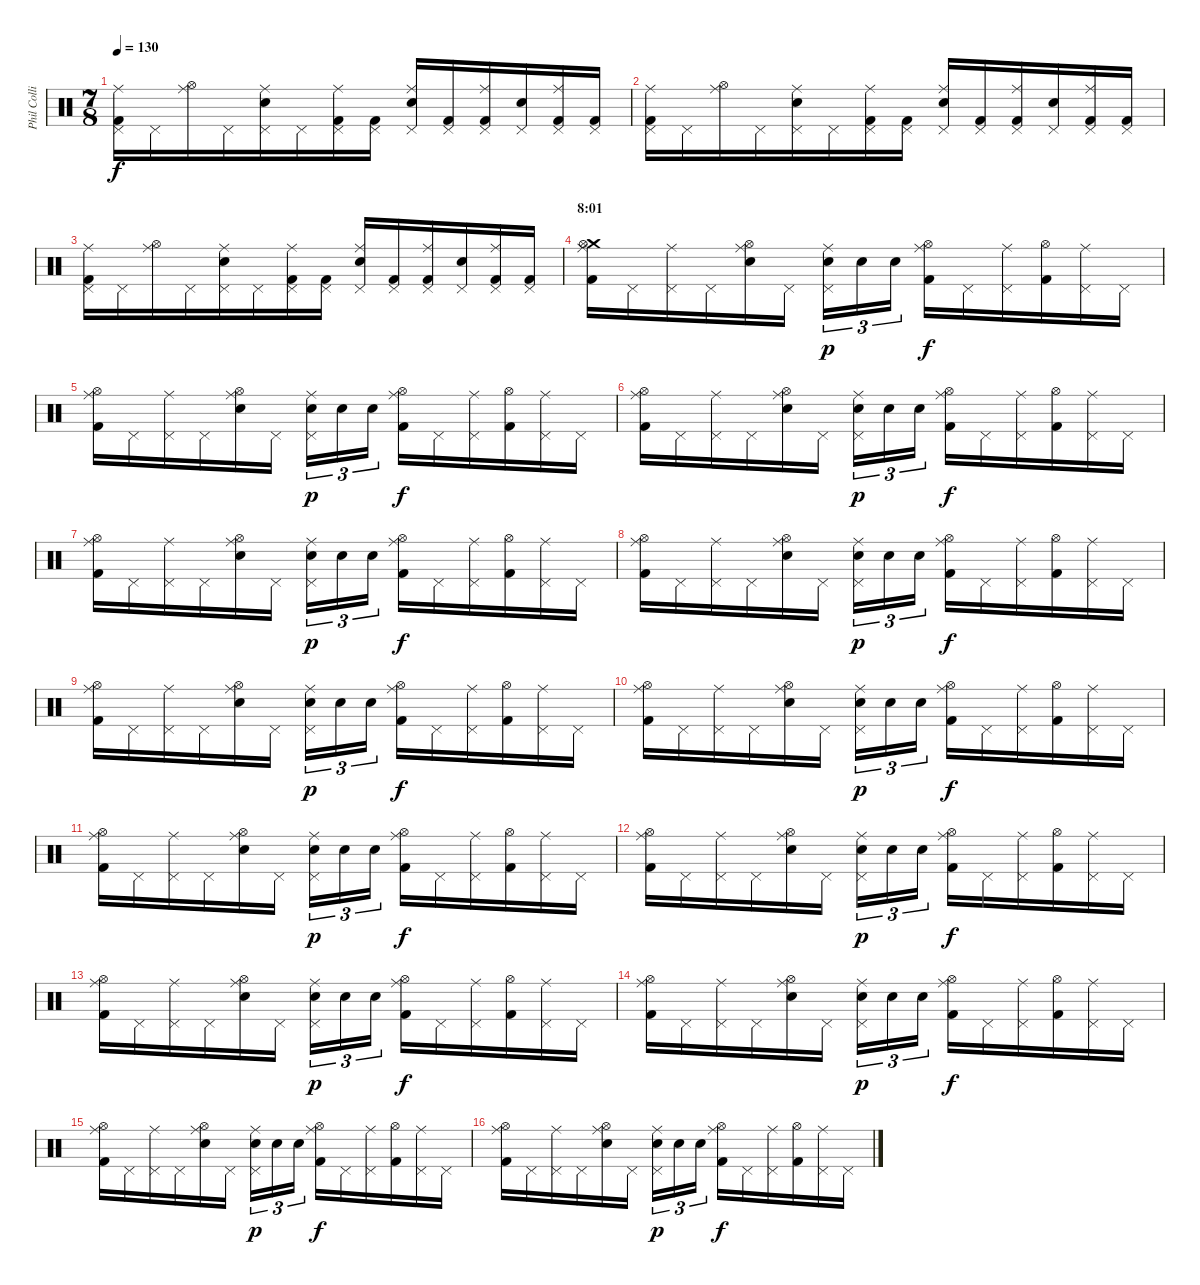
\track ("Phil Collins (drums)" "Phil Colli") {instrument percussion}
\staff {score}
\articulation defaults
\ts (7 8)
\tempo 130
\clef neutral
\ks c
("Ride (middle)" "Pedal Hi-Hat (hit)" "Kick (hit) 2").16{dy f} "Pedal Hi-Hat (hit)".16 ("Ride (middle)" "Hi-Hat (open)").16 "Pedal Hi-Hat (hit)".16 ("Ride (middle)" "Pedal Hi-Hat (hit)" "Electric Snare (hit)").16 "Pedal Hi-Hat (hit)".16 ("Ride (middle)" "Pedal Hi-Hat (hit)" "Kick (hit) 2").16 ("Pedal Hi-Hat (hit)" "Kick (hit) 2").16 ("Ride (middle)" "Pedal Hi-Hat (hit)" "Electric Snare (hit)").16 ("Pedal Hi-Hat (hit)" "Kick (hit) 2").16 ("Ride (middle)" "Pedal Hi-Hat (hit)" "Kick (hit) 2").16 ("Pedal Hi-Hat (hit)" "Electric Snare (hit)").16 ("Ride (middle)" "Pedal Hi-Hat (hit)" "Kick (hit) 2").16 ("Pedal Hi-Hat (hit)" "Kick (hit) 2").16 |
("Ride (middle)" "Pedal Hi-Hat (hit)" "Kick (hit) 2").16 "Pedal Hi-Hat (hit)".16 ("Ride (middle)" "Hi-Hat (open)").16 "Pedal Hi-Hat (hit)".16 ("Ride (middle)" "Pedal Hi-Hat (hit)" "Electric Snare (hit)").16 "Pedal Hi-Hat (hit)".16 ("Ride (middle)" "Pedal Hi-Hat (hit)" "Kick (hit) 2").16 ("Pedal Hi-Hat (hit)" "Kick (hit) 2").16 ("Ride (middle)" "Pedal Hi-Hat (hit)" "Electric Snare (hit)").16 ("Pedal Hi-Hat (hit)" "Kick (hit) 2").16 ("Ride (middle)" "Pedal Hi-Hat (hit)" "Kick (hit) 2").16 ("Pedal Hi-Hat (hit)" "Electric Snare (hit)").16 ("Ride (middle)" "Pedal Hi-Hat (hit)" "Kick (hit) 2").16 ("Pedal Hi-Hat (hit)" "Kick (hit) 2").16 |
("Ride (middle)" "Pedal Hi-Hat (hit)" "Kick (hit) 2").16 "Pedal Hi-Hat (hit)".16 ("Ride (middle)" "Hi-Hat (open)").16 "Pedal Hi-Hat (hit)".16 ("Ride (middle)" "Pedal Hi-Hat (hit)" "Electric Snare (hit)").16 "Pedal Hi-Hat (hit)".16 ("Ride (middle)" "Pedal Hi-Hat (hit)" "Kick (hit) 2").16 ("Pedal Hi-Hat (hit)" "Kick (hit) 2").16 ("Ride (middle)" "Pedal Hi-Hat (hit)" "Electric Snare (hit)").16 ("Pedal Hi-Hat (hit)" "Kick (hit) 2").16 ("Ride (middle)" "Pedal Hi-Hat (hit)" "Kick (hit) 2").16 ("Pedal Hi-Hat (hit)" "Electric Snare (hit)").16 ("Ride (middle)" "Pedal Hi-Hat (hit)" "Kick (hit) 2").16 ("Pedal Hi-Hat (hit)" "Kick (hit) 2").16 |
\section ("" "8:01")
("Crash medium (hit)" "Ride (middle)" "Hi-Hat (open)" "Kick (hit) 2").16 "Pedal Hi-Hat (hit)".16 ("Ride (middle)" "Pedal Hi-Hat (hit)").16 "Pedal Hi-Hat (hit)".16 ("Ride (middle)" "Hi-Hat (open)" "Electric Snare (hit)").16 "Pedal Hi-Hat (hit)".16 ("Ride (middle)" "Pedal Hi-Hat (hit)" "Electric Snare (hit)").16{tu (3 2) dy p} "Electric Snare (hit)".16{tu (3 2)} "Electric Snare (hit)".16{tu (3 2)} ("Ride (middle)" "Hi-Hat (open)" "Kick (hit) 2").16{dy f} "Pedal Hi-Hat (hit)".16 ("Ride (middle)" "Pedal Hi-Hat (hit)").16 ("Hi-Hat (open)" "Kick (hit) 2").16 ("Ride (middle)" "Pedal Hi-Hat (hit)").16 "Pedal Hi-Hat (hit)".16 |
("Ride (middle)" "Hi-Hat (open)" "Kick (hit) 2").16 "Pedal Hi-Hat (hit)".16 ("Ride (middle)" "Pedal Hi-Hat (hit)").16 "Pedal Hi-Hat (hit)".16 ("Ride (middle)" "Hi-Hat (open)" "Electric Snare (hit)").16 "Pedal Hi-Hat (hit)".16 ("Ride (middle)" "Pedal Hi-Hat (hit)" "Electric Snare (hit)").16{tu (3 2) dy p} "Electric Snare (hit)".16{tu (3 2)} "Electric Snare (hit)".16{tu (3 2)} ("Ride (middle)" "Hi-Hat (open)" "Kick (hit) 2").16{dy f} "Pedal Hi-Hat (hit)".16 ("Ride (middle)" "Pedal Hi-Hat (hit)").16 ("Hi-Hat (open)" "Kick (hit) 2").16 ("Ride (middle)" "Pedal Hi-Hat (hit)").16 "Pedal Hi-Hat (hit)".16 |
("Ride (middle)" "Hi-Hat (open)" "Kick (hit) 2").16 "Pedal Hi-Hat (hit)".16 ("Ride (middle)" "Pedal Hi-Hat (hit)").16 "Pedal Hi-Hat (hit)".16 ("Ride (middle)" "Hi-Hat (open)" "Electric Snare (hit)").16 "Pedal Hi-Hat (hit)".16 ("Ride (middle)" "Pedal Hi-Hat (hit)" "Electric Snare (hit)").16{tu (3 2) dy p} "Electric Snare (hit)".16{tu (3 2)} "Electric Snare (hit)".16{tu (3 2)} ("Ride (middle)" "Hi-Hat (open)" "Kick (hit) 2").16{dy f} "Pedal Hi-Hat (hit)".16 ("Ride (middle)" "Pedal Hi-Hat (hit)").16 ("Hi-Hat (open)" "Kick (hit) 2").16 ("Ride (middle)" "Pedal Hi-Hat (hit)").16 "Pedal Hi-Hat (hit)".16 |
("Ride (middle)" "Hi-Hat (open)" "Kick (hit) 2").16 "Pedal Hi-Hat (hit)".16 ("Ride (middle)" "Pedal Hi-Hat (hit)").16 "Pedal Hi-Hat (hit)".16 ("Ride (middle)" "Hi-Hat (open)" "Electric Snare (hit)").16 "Pedal Hi-Hat (hit)".16 ("Ride (middle)" "Pedal Hi-Hat (hit)" "Electric Snare (hit)").16{tu (3 2) dy p} "Electric Snare (hit)".16{tu (3 2)} "Electric Snare (hit)".16{tu (3 2)} ("Ride (middle)" "Hi-Hat (open)" "Kick (hit) 2").16{dy f} "Pedal Hi-Hat (hit)".16 ("Ride (middle)" "Pedal Hi-Hat (hit)").16 ("Hi-Hat (open)" "Kick (hit) 2").16 ("Ride (middle)" "Pedal Hi-Hat (hit)").16 "Pedal Hi-Hat (hit)".16 |
("Ride (middle)" "Hi-Hat (open)" "Kick (hit) 2").16 "Pedal Hi-Hat (hit)".16 ("Ride (middle)" "Pedal Hi-Hat (hit)").16 "Pedal Hi-Hat (hit)".16 ("Ride (middle)" "Hi-Hat (open)" "Electric Snare (hit)").16 "Pedal Hi-Hat (hit)".16 ("Ride (middle)" "Pedal Hi-Hat (hit)" "Electric Snare (hit)").16{tu (3 2) dy p} "Electric Snare (hit)".16{tu (3 2)} "Electric Snare (hit)".16{tu (3 2)} ("Ride (middle)" "Hi-Hat (open)" "Kick (hit) 2").16{dy f} "Pedal Hi-Hat (hit)".16 ("Ride (middle)" "Pedal Hi-Hat (hit)").16 ("Hi-Hat (open)" "Kick (hit) 2").16 ("Ride (middle)" "Pedal Hi-Hat (hit)").16 "Pedal Hi-Hat (hit)".16 |
("Ride (middle)" "Hi-Hat (open)" "Kick (hit) 2").16 "Pedal Hi-Hat (hit)".16 ("Ride (middle)" "Pedal Hi-Hat (hit)").16 "Pedal Hi-Hat (hit)".16 ("Ride (middle)" "Hi-Hat (open)" "Electric Snare (hit)").16 "Pedal Hi-Hat (hit)".16 ("Ride (middle)" "Pedal Hi-Hat (hit)" "Electric Snare (hit)").16{tu (3 2) dy p} "Electric Snare (hit)".16{tu (3 2)} "Electric Snare (hit)".16{tu (3 2)} ("Ride (middle)" "Hi-Hat (open)" "Kick (hit) 2").16{dy f} "Pedal Hi-Hat (hit)".16 ("Ride (middle)" "Pedal Hi-Hat (hit)").16 ("Hi-Hat (open)" "Kick (hit) 2").16 ("Ride (middle)" "Pedal Hi-Hat (hit)").16 "Pedal Hi-Hat (hit)".16 |
("Ride (middle)" "Hi-Hat (open)" "Kick (hit) 2").16 "Pedal Hi-Hat (hit)".16 ("Ride (middle)" "Pedal Hi-Hat (hit)").16 "Pedal Hi-Hat (hit)".16 ("Ride (middle)" "Hi-Hat (open)" "Electric Snare (hit)").16 "Pedal Hi-Hat (hit)".16 ("Ride (middle)" "Pedal Hi-Hat (hit)" "Electric Snare (hit)").16{tu (3 2) dy p} "Electric Snare (hit)".16{tu (3 2)} "Electric Snare (hit)".16{tu (3 2)} ("Ride (middle)" "Hi-Hat (open)" "Kick (hit) 2").16{dy f} "Pedal Hi-Hat (hit)".16 ("Ride (middle)" "Pedal Hi-Hat (hit)").16 ("Hi-Hat (open)" "Kick (hit) 2").16 ("Ride (middle)" "Pedal Hi-Hat (hit)").16 "Pedal Hi-Hat (hit)".16 |
("Ride (middle)" "Hi-Hat (open)" "Kick (hit) 2").16 "Pedal Hi-Hat (hit)".16 ("Ride (middle)" "Pedal Hi-Hat (hit)").16 "Pedal Hi-Hat (hit)".16 ("Ride (middle)" "Hi-Hat (open)" "Electric Snare (hit)").16 "Pedal Hi-Hat (hit)".16 ("Ride (middle)" "Pedal Hi-Hat (hit)" "Electric Snare (hit)").16{tu (3 2) dy p} "Electric Snare (hit)".16{tu (3 2)} "Electric Snare (hit)".16{tu (3 2)} ("Ride (middle)" "Hi-Hat (open)" "Kick (hit) 2").16{dy f} "Pedal Hi-Hat (hit)".16 ("Ride (middle)" "Pedal Hi-Hat (hit)").16 ("Hi-Hat (open)" "Kick (hit) 2").16 ("Ride (middle)" "Pedal Hi-Hat (hit)").16 "Pedal Hi-Hat (hit)".16 |
("Ride (middle)" "Hi-Hat (open)" "Kick (hit) 2").16 "Pedal Hi-Hat (hit)".16 ("Ride (middle)" "Pedal Hi-Hat (hit)").16 "Pedal Hi-Hat (hit)".16 ("Ride (middle)" "Hi-Hat (open)" "Electric Snare (hit)").16 "Pedal Hi-Hat (hit)".16 ("Ride (middle)" "Pedal Hi-Hat (hit)" "Electric Snare (hit)").16{tu (3 2) dy p} "Electric Snare (hit)".16{tu (3 2)} "Electric Snare (hit)".16{tu (3 2)} ("Ride (middle)" "Hi-Hat (open)" "Kick (hit) 2").16{dy f} "Pedal Hi-Hat (hit)".16 ("Ride (middle)" "Pedal Hi-Hat (hit)").16 ("Hi-Hat (open)" "Kick (hit) 2").16 ("Ride (middle)" "Pedal Hi-Hat (hit)").16 "Pedal Hi-Hat (hit)".16 |
("Ride (middle)" "Hi-Hat (open)" "Kick (hit) 2").16 "Pedal Hi-Hat (hit)".16 ("Ride (middle)" "Pedal Hi-Hat (hit)").16 "Pedal Hi-Hat (hit)".16 ("Ride (middle)" "Hi-Hat (open)" "Electric Snare (hit)").16 "Pedal Hi-Hat (hit)".16 ("Ride (middle)" "Pedal Hi-Hat (hit)" "Electric Snare (hit)").16{tu (3 2) dy p} "Electric Snare (hit)".16{tu (3 2)} "Electric Snare (hit)".16{tu (3 2)} ("Ride (middle)" "Hi-Hat (open)" "Kick (hit) 2").16{dy f} "Pedal Hi-Hat (hit)".16 ("Ride (middle)" "Pedal Hi-Hat (hit)").16 ("Hi-Hat (open)" "Kick (hit) 2").16 ("Ride (middle)" "Pedal Hi-Hat (hit)").16 "Pedal Hi-Hat (hit)".16 |
("Ride (middle)" "Hi-Hat (open)" "Kick (hit) 2").16 "Pedal Hi-Hat (hit)".16 ("Ride (middle)" "Pedal Hi-Hat (hit)").16 "Pedal Hi-Hat (hit)".16 ("Ride (middle)" "Hi-Hat (open)" "Electric Snare (hit)").16 "Pedal Hi-Hat (hit)".16 ("Ride (middle)" "Pedal Hi-Hat (hit)" "Electric Snare (hit)").16{tu (3 2) dy p} "Electric Snare (hit)".16{tu (3 2)} "Electric Snare (hit)".16{tu (3 2)} ("Ride (middle)" "Hi-Hat (open)" "Kick (hit) 2").16{dy f} "Pedal Hi-Hat (hit)".16 ("Ride (middle)" "Pedal Hi-Hat (hit)").16 ("Hi-Hat (open)" "Kick (hit) 2").16 ("Ride (middle)" "Pedal Hi-Hat (hit)").16 "Pedal Hi-Hat (hit)".16 |
("Ride (middle)" "Hi-Hat (open)" "Kick (hit) 2").16 "Pedal Hi-Hat (hit)".16 ("Ride (middle)" "Pedal Hi-Hat (hit)").16 "Pedal Hi-Hat (hit)".16 ("Ride (middle)" "Hi-Hat (open)" "Electric Snare (hit)").16 "Pedal Hi-Hat (hit)".16 ("Ride (middle)" "Pedal Hi-Hat (hit)" "Electric Snare (hit)").16{tu (3 2) dy p} "Electric Snare (hit)".16{tu (3 2)} "Electric Snare (hit)".16{tu (3 2)} ("Ride (middle)" "Hi-Hat (open)" "Kick (hit) 2").16{dy f} "Pedal Hi-Hat (hit)".16 ("Ride (middle)" "Pedal Hi-Hat (hit)").16 ("Hi-Hat (open)" "Kick (hit) 2").16 ("Ride (middle)" "Pedal Hi-Hat (hit)").16 "Pedal Hi-Hat (hit)".16 |
("Ride (middle)" "Hi-Hat (open)" "Kick (hit) 2").16 "Pedal Hi-Hat (hit)".16 ("Ride (middle)" "Pedal Hi-Hat (hit)").16 "Pedal Hi-Hat (hit)".16 ("Ride (middle)" "Hi-Hat (open)" "Electric Snare (hit)").16 "Pedal Hi-Hat (hit)".16 ("Ride (middle)" "Pedal Hi-Hat (hit)" "Electric Snare (hit)").16{tu (3 2) dy p} "Electric Snare (hit)".16{tu (3 2)} "Electric Snare (hit)".16{tu (3 2)} ("Ride (middle)" "Hi-Hat (open)" "Kick (hit) 2").16{dy f} "Pedal Hi-Hat (hit)".16 ("Ride (middle)" "Pedal Hi-Hat (hit)").16 ("Hi-Hat (open)" "Kick (hit) 2").16 ("Ride (middle)" "Pedal Hi-Hat (hit)").16 "Pedal Hi-Hat (hit)".16
